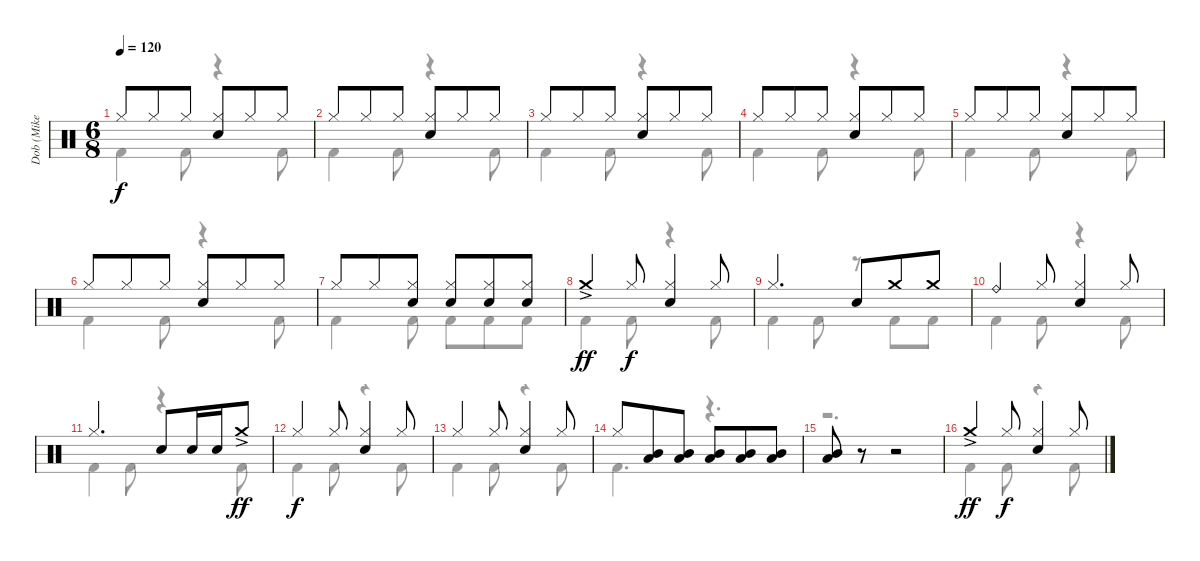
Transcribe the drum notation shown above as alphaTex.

\track ("Dob (Mike Terrana)" "Dob (Mike ") {instrument percussion}
\staff {score}
\articulation defaults
\voice
\ts (6 8)
\tempo 120
\clef neutral
\ks c "Hi-Hat (closed)".8{dy f} "Hi-Hat (closed)".8 "Hi-Hat (closed)".8
("Hi-Hat (closed)" "Electric Snare (hit)").8 "Hi-Hat (closed)".8 "Hi-Hat (closed)".8 |
"Hi-Hat (closed)".8 "Hi-Hat (closed)".8 "Hi-Hat (closed)".8 ("Hi-Hat (closed)" "Electric Snare (hit)").8 "Hi-Hat (closed)".8 "Hi-Hat (closed)".8 |
"Hi-Hat (closed)".8 "Hi-Hat (closed)".8 "Hi-Hat (closed)".8 ("Hi-Hat (closed)" "Electric Snare (hit)").8 "Hi-Hat (closed)".8 "Hi-Hat (closed)".8 |
"Hi-Hat (closed)".8 "Hi-Hat (closed)".8 "Hi-Hat (closed)".8 ("Hi-Hat (closed)" "Electric Snare (hit)").8 "Hi-Hat (closed)".8 "Hi-Hat (closed)".8 |
"Hi-Hat (closed)".8 "Hi-Hat (closed)".8 "Hi-Hat (closed)".8 ("Hi-Hat (closed)" "Electric Snare (hit)").8 "Hi-Hat (closed)".8 "Hi-Hat (closed)".8 |
"Hi-Hat (closed)".8 "Hi-Hat (closed)".8 "Hi-Hat (closed)".8 ("Hi-Hat (closed)" "Electric Snare (hit)").8 "Hi-Hat (closed)".8 "Hi-Hat (closed)".8 |
"Hi-Hat (closed)".8 "Hi-Hat (closed)".8 ("Hi-Hat (closed)" "Electric Snare (hit)").8 ("Hi-Hat (closed)" "Electric Snare (hit)").8 ("Hi-Hat (closed)" "Electric Snare (hit)").8 ("Hi-Hat (closed)" "Electric Snare (hit)").8 |
"Crash medium (hit)"{ac}.4{dy ff} "Hi-Hat (closed)".8{dy f} ("Hi-Hat (closed)" "Electric Snare (hit)").4 "Hi-Hat (closed)".8 |
"Hi-Hat (closed)".4{d} "Electric Snare (hit)".8 "Crash medium (hit)".8 "Crash medium (hit)".8 |
"Ride (bell)".4 "Hi-Hat (closed)".8 ("Hi-Hat (closed)" "Electric Snare (hit)").4 "Hi-Hat (closed)".8 |
"Hi-Hat (closed)".4{d} "Electric Snare (hit)".8 "Electric Snare (hit)".16 "Electric Snare (hit)".16 "Crash medium (hit)"{ac}.8{dy ff} |
"Hi-Hat (closed)".4{dy f} "Hi-Hat (closed)".8 ("Hi-Hat (closed)" "Electric Snare (hit)").4 "Hi-Hat (closed)".8 |
"Hi-Hat (closed)".4 "Hi-Hat (closed)".8 ("Hi-Hat (closed)" "Electric Snare (hit)").4 "Hi-Hat (closed)".8 |
"Hi-Hat (closed)".8 ("Mid Tom (hit)" "Low Tom (hit)").8 ("Mid Tom (hit)" "Low Tom (hit)").8 ("Mid Tom (hit)" "Low Tom (hit)").8 ("Mid Tom (hit)" "Low Tom (hit)").8 ("Mid Tom (hit)" "Low Tom (hit)").8 |
("Mid Tom (hit)" "Low Tom (hit)").8 r.8 r.2 |
"Crash medium (hit)"{ac}.4{dy ff} "Hi-Hat (closed)".8{dy f} ("Hi-Hat (closed)" "Electric Snare (hit)").4 "Hi-Hat (closed)".8
\voice
\clef neutral
\ottava regular
\simile none
\ks c "Kick (hit) 2".4{dy f} "Kick (hit) 2".8
r.4 "Kick (hit) 2".8 |
"Kick (hit) 2".4 "Kick (hit) 2".8 r.4 "Kick (hit) 2".8 |
"Kick (hit) 2".4 "Kick (hit) 2".8 r.4 "Kick (hit) 2".8 |
"Kick (hit) 2".4 "Kick (hit) 2".8 r.4 "Kick (hit) 2".8 |
"Kick (hit) 2".4 "Kick (hit) 2".8 r.4 "Kick (hit) 2".8 |
"Kick (hit) 2".4 "Kick (hit) 2".8 r.4 "Kick (hit) 2".8 |
"Kick (hit) 2".4 "Kick (hit) 2".8 "Kick (hit) 2".8 "Kick (hit) 2".8 "Kick (hit) 2".8 |
"Kick (hit) 2".4 "Kick (hit) 2".8 r.4 "Kick (hit) 2".8 |
"Kick (hit) 2".4 "Kick (hit) 2".8 r.8 "Kick (hit) 2".8 "Kick (hit) 2".8 |
"Kick (hit) 2".4 "Kick (hit) 2".8 r.4 "Kick (hit) 2".8 |
"Kick (hit) 2".4 "Kick (hit) 2".8 r.4 "Kick (hit) 2".8 |
"Kick (hit) 2".4 "Kick (hit) 2".8 r.4 "Kick (hit) 2".8 |
"Kick (hit) 2".4 "Kick (hit) 2".8 r.4 "Kick (hit) 2".8 |
"Kick (hit) 2".4{d} r.4{d} |
r.2{d} |
"Kick (hit) 2".4 "Kick (hit) 2".8 r.4 "Kick (hit) 2".8
